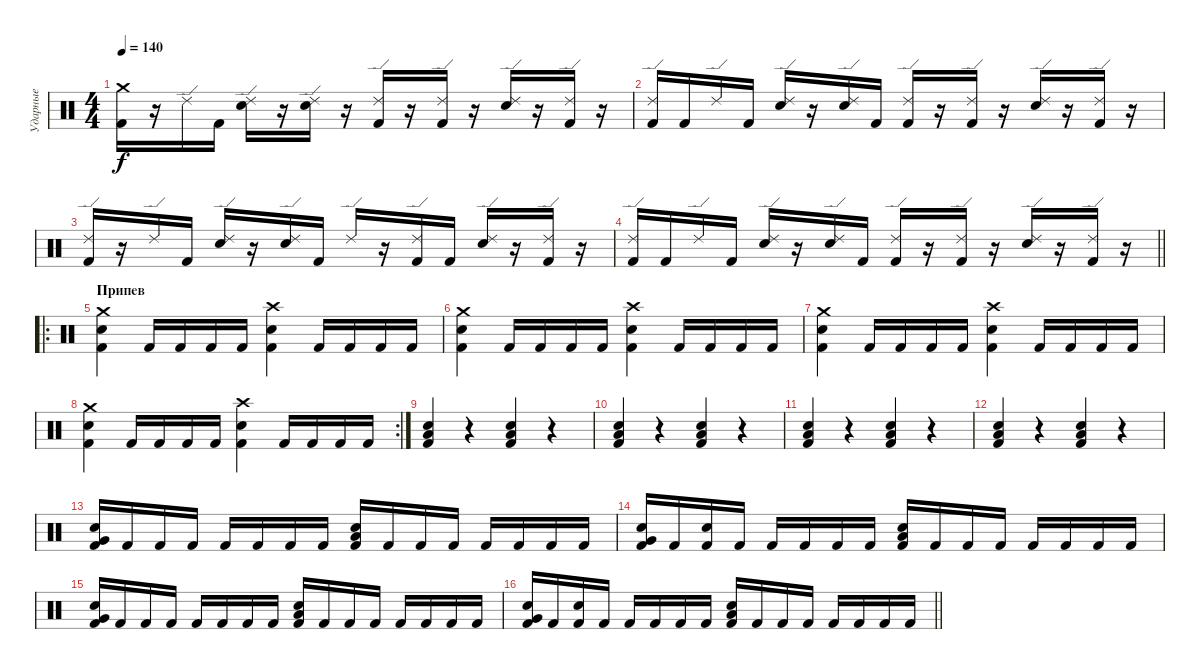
\track ("Ударные" "Ударные") {instrument percussion}
\staff {score}
\articulation defaults
\ts (4 4)
\tempo 140
\clef neutral
\ks c
("Crash medium (hit)" "Kick (hit) 2").16{dy f} r.16 "Ride (edge) 2".16 "Kick (hit) 2".16 ("Ride (edge) 2" "Snare (hit) 2").16 r.16 ("Ride (edge) 2" "Snare (hit) 2").16 r.16 ("Ride (edge) 2" "Kick (hit) 2").16 r.16 ("Ride (edge) 2" "Kick (hit) 2").16 r.16 ("Ride (edge) 2" "Snare (hit) 2").16 r.16 ("Ride (edge) 2" "Kick (hit) 2").16 r.16 |
("Ride (edge) 2" "Kick (hit) 2").16 "Kick (hit) 2".16 "Ride (edge) 2".16 "Kick (hit) 2".16 ("Ride (edge) 2" "Snare (hit) 2").16 r.16 ("Ride (edge) 2" "Snare (hit) 2").16 "Kick (hit) 2".16 ("Ride (edge) 2" "Kick (hit) 2").16 r.16 ("Ride (edge) 2" "Kick (hit) 2").16 r.16 ("Ride (edge) 2" "Snare (hit) 2").16 r.16 ("Ride (edge) 2" "Kick (hit) 2").16 r.16 |
("Ride (edge) 2" "Kick (hit) 2").16 r.16 "Ride (edge) 2".16 "Kick (hit) 2".16 ("Ride (edge) 2" "Snare (hit) 2").16 r.16 ("Ride (edge) 2" "Snare (hit) 2").16 "Kick (hit) 2".16 "Ride (edge) 2".16 r.16 ("Ride (edge) 2" "Kick (hit) 2").16 "Kick (hit) 2".16 ("Ride (edge) 2" "Snare (hit) 2").16 r.16 ("Ride (edge) 2" "Kick (hit) 2").16 r.16 |
\barLineRight lightlight
("Ride (edge) 2" "Kick (hit) 2").16 "Kick (hit) 2".16 "Ride (edge) 2".16 "Kick (hit) 2".16 ("Ride (edge) 2" "Snare (hit) 2").16 r.16 ("Ride (edge) 2" "Snare (hit) 2").16 "Kick (hit) 2".16 ("Ride (edge) 2" "Kick (hit) 2").16 r.16 ("Ride (edge) 2" "Kick (hit) 2").16 r.16 ("Ride (edge) 2" "Snare (hit) 2").16 r.16 ("Ride (edge) 2" "Kick (hit) 2").16 r.16 |
\ro
\section ("" "Припев")
("Snare (hit) 2" "Crash medium (hit)" "Kick (hit) 2").4 "Kick (hit) 2".16 "Kick (hit) 2".16 "Kick (hit) 2".16 "Kick (hit) 2".16 ("Snare (hit) 2" "Crash high (hit)" "Kick (hit) 2").4 "Kick (hit) 2".16 "Kick (hit) 2".16 "Kick (hit) 2".16 "Kick (hit) 2".16 |
("Snare (hit) 2" "Crash medium (hit)" "Kick (hit) 2").4 "Kick (hit) 2".16 "Kick (hit) 2".16 "Kick (hit) 2".16 "Kick (hit) 2".16 ("Snare (hit) 2" "Crash high (hit)" "Kick (hit) 2").4 "Kick (hit) 2".16 "Kick (hit) 2".16 "Kick (hit) 2".16 "Kick (hit) 2".16 |
("Snare (hit) 2" "Crash medium (hit)" "Kick (hit) 2").4 "Kick (hit) 2".16 "Kick (hit) 2".16 "Kick (hit) 2".16 "Kick (hit) 2".16 ("Snare (hit) 2" "Crash high (hit)" "Kick (hit) 2").4 "Kick (hit) 2".16 "Kick (hit) 2".16 "Kick (hit) 2".16 "Kick (hit) 2".16 |
\rc 2
("Snare (hit) 2" "Crash medium (hit)" "Kick (hit) 2").4 "Kick (hit) 2".16 "Kick (hit) 2".16 "Kick (hit) 2".16 "Kick (hit) 2".16 ("Snare (hit) 2" "Crash high (hit)" "Kick (hit) 2").4 "Kick (hit) 2".16 "Kick (hit) 2".16 "Kick (hit) 2".16 "Kick (hit) 2".16 |
("Snare (hit) 2" "Low Floor Tom (hit)" "Kick (hit) 2").4 r.4 ("Snare (hit) 2" "Low Floor Tom (hit)" "Kick (hit) 2").4 r.4 |
("Snare (hit) 2" "Low Floor Tom (hit)" "Kick (hit) 2").4 r.4 ("Snare (hit) 2" "Low Floor Tom (hit)" "Kick (hit) 2").4 r.4 |
("Snare (hit) 2" "Low Floor Tom (hit)" "Kick (hit) 2").4 r.4 ("Snare (hit) 2" "Low Floor Tom (hit)" "Kick (hit) 2").4 r.4 |
("Snare (hit) 2" "Low Floor Tom (hit)" "Kick (hit) 2").4 r.4 ("Snare (hit) 2" "Low Floor Tom (hit)" "Kick (hit) 2").4 r.4 |
("Snare (hit) 2" "Very Low Tom (hit)" "Kick (hit) 2").16 "Kick (hit) 2".16 "Kick (hit) 2".16 "Kick (hit) 2".16 "Kick (hit) 2".16 "Kick (hit) 2".16 "Kick (hit) 2".16 "Kick (hit) 2".16 ("Snare (hit) 2" "Low Floor Tom (hit)" "Kick (hit) 2").16 "Kick (hit) 2".16 "Kick (hit) 2".16 "Kick (hit) 2".16 "Kick (hit) 2".16 "Kick (hit) 2".16 "Kick (hit) 2".16 "Kick (hit) 2".16 |
("Snare (hit) 2" "Very Low Tom (hit)" "Kick (hit) 2").16 "Kick (hit) 2".16 ("Snare (hit) 2" "Kick (hit) 2").16 "Kick (hit) 2".16 "Kick (hit) 2".16 "Kick (hit) 2".16 "Kick (hit) 2".16 "Kick (hit) 2".16 ("Snare (hit) 2" "Low Floor Tom (hit)" "Kick (hit) 2").16 "Kick (hit) 2".16 "Kick (hit) 2".16 "Kick (hit) 2".16 "Kick (hit) 2".16 "Kick (hit) 2".16 "Kick (hit) 2".16 "Kick (hit) 2".16 |
("Snare (hit) 2" "Very Low Tom (hit)" "Kick (hit) 2").16 "Kick (hit) 2".16 "Kick (hit) 2".16 "Kick (hit) 2".16 "Kick (hit) 2".16 "Kick (hit) 2".16 "Kick (hit) 2".16 "Kick (hit) 2".16 ("Snare (hit) 2" "Low Floor Tom (hit)" "Kick (hit) 2").16 "Kick (hit) 2".16 "Kick (hit) 2".16 "Kick (hit) 2".16 "Kick (hit) 2".16 "Kick (hit) 2".16 "Kick (hit) 2".16 "Kick (hit) 2".16 |
\barLineRight lightlight
("Snare (hit) 2" "Very Low Tom (hit)" "Kick (hit) 2").16 "Kick (hit) 2".16 ("Snare (hit) 2" "Kick (hit) 2").16 "Kick (hit) 2".16 "Kick (hit) 2".16 "Kick (hit) 2".16 "Kick (hit) 2".16 "Kick (hit) 2".16 ("Snare (hit) 2" "Low Floor Tom (hit)" "Kick (hit) 2").16 "Kick (hit) 2".16 "Kick (hit) 2".16 "Kick (hit) 2".16 "Kick (hit) 2".16 "Kick (hit) 2".16 "Kick (hit) 2".16 "Kick (hit) 2".16
